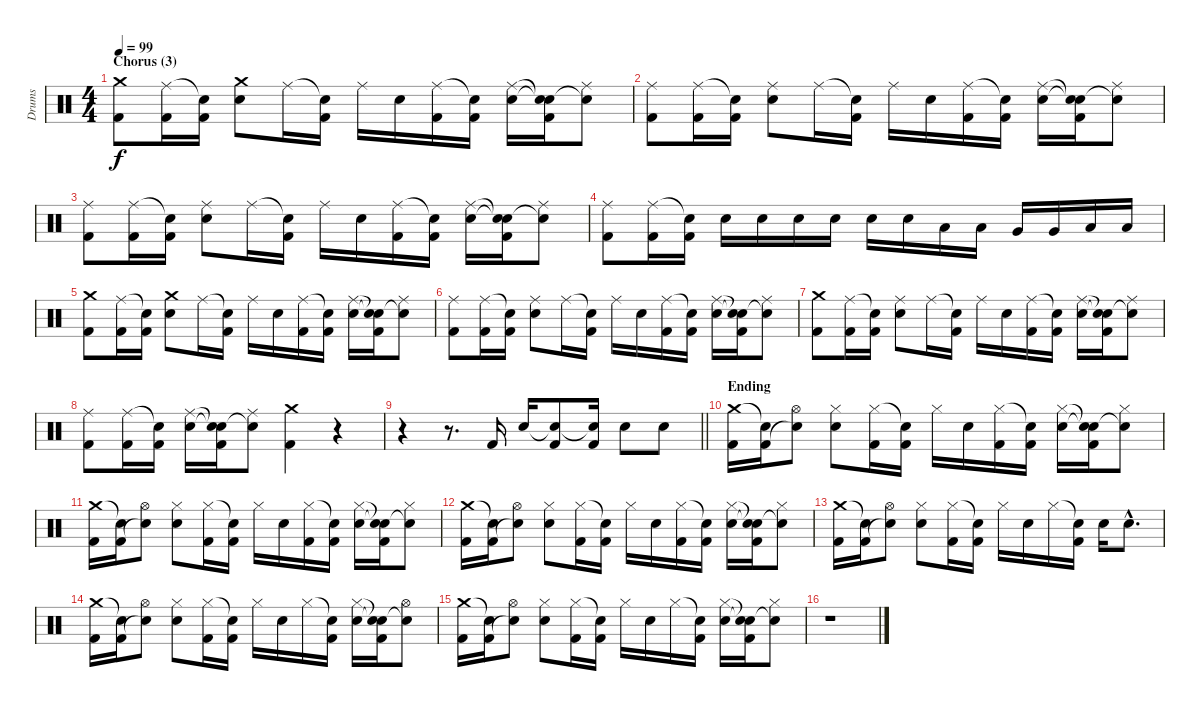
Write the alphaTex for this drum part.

\track ("Drums" "Drums") {instrument percussion}
\staff {score}
\articulation defaults
\ts (4 4)
\section ("" "Chorus (3)")
\tempo 99
\clef neutral
\ks c
("Crash medium (hit)" "Kick (hit) 2").8{dy f} ("Ride (middle)" "Kick (hit) 2").16 ("Snare (hit)"{t} "Kick (hit) 2").16 ("Crash medium (hit)" "Electric Snare (hit)").8 "Ride (middle)".16 ("Snare (hit)"{t} "Kick (hit) 2").16 "Ride (middle)".16 "Electric Snare (hit)".16 ("Ride (middle)" "Kick (hit) 2").16 ("Snare (hit)"{t} "Kick (hit) 2").16 ("Ride (middle)" "Electric Snare (hit)").16 ("Snare (hit)"{t} "Snare (hit)"{t} "Kick (hit) 2").16 ("Ride (middle)" "Snare (hit)"{t}).8 |
("Ride (middle)" "Kick (hit) 2").8 ("Ride (middle)" "Kick (hit) 2").16 ("Snare (hit)"{t} "Kick (hit) 2").16 ("Ride (middle)" "Electric Snare (hit)").8 "Ride (middle)".16 ("Snare (hit)"{t} "Kick (hit) 2").16 "Ride (middle)".16 "Electric Snare (hit)".16 ("Ride (middle)" "Kick (hit) 2").16 ("Snare (hit)"{t} "Kick (hit) 2").16 ("Ride (middle)" "Electric Snare (hit)").16 ("Snare (hit)"{t} "Snare (hit)"{t} "Kick (hit) 2").16 ("Ride (middle)" "Snare (hit)"{t}).8 |
("Ride (middle)" "Kick (hit) 2").8 ("Ride (middle)" "Kick (hit) 2").16 ("Snare (hit)"{t} "Kick (hit) 2").16 ("Ride (middle)" "Electric Snare (hit)").8 "Ride (middle)".16 ("Snare (hit)"{t} "Kick (hit) 2").16 "Ride (middle)".16 "Electric Snare (hit)".16 ("Ride (middle)" "Kick (hit) 2").16 ("Snare (hit)"{t} "Kick (hit) 2").16 ("Ride (middle)" "Electric Snare (hit)").16 ("Snare (hit)"{t} "Snare (hit)"{t} "Kick (hit) 2").16 ("Ride (middle)" "Snare (hit)"{t}).8 |
("Ride (middle)" "Kick (hit) 2").8 ("Ride (middle)" "Kick (hit) 2").16 ("Snare (hit)"{t} "Kick (hit) 2").16 "Electric Snare (hit)".16 "Electric Snare (hit)".16 "Electric Snare (hit)".16 "Electric Snare (hit)".16 "Electric Snare (hit)".16 "Electric Snare (hit)".16 "Low Tom (hit)".16 "Low Tom (hit)".16 "Very Low Tom (hit)".16 "Very Low Tom (hit)".16 "Low Floor Tom (hit)".16 "Low Floor Tom (hit)".16 |
("Crash medium (hit)" "Kick (hit) 2").8 ("Ride (middle)" "Kick (hit) 2").16 ("Snare (hit)"{t} "Kick (hit) 2").16 ("Crash medium (hit)" "Electric Snare (hit)").8 "Ride (middle)".16 ("Snare (hit)"{t} "Kick (hit) 2").16 "Ride (middle)".16 "Electric Snare (hit)".16 ("Ride (middle)" "Kick (hit) 2").16 ("Snare (hit)"{t} "Kick (hit) 2").16 ("Ride (middle)" "Electric Snare (hit)").16 ("Snare (hit)"{t} "Snare (hit)"{t} "Kick (hit) 2").16 ("Ride (middle)" "Snare (hit)"{t}).8 |
("Ride (middle)" "Kick (hit) 2").8 ("Ride (middle)" "Kick (hit) 2").16 ("Snare (hit)"{t} "Kick (hit) 2").16 ("Ride (middle)" "Electric Snare (hit)").8 "Ride (middle)".16 ("Snare (hit)"{t} "Kick (hit) 2").16 "Ride (middle)".16 "Electric Snare (hit)".16 ("Ride (middle)" "Kick (hit) 2").16 ("Snare (hit)"{t} "Kick (hit) 2").16 ("Ride (middle)" "Electric Snare (hit)").16 ("Snare (hit)"{t} "Snare (hit)"{t} "Kick (hit) 2").16 ("Ride (middle)" "Snare (hit)"{t}).8 |
("Crash medium (hit)" "Kick (hit) 2").8 ("Ride (middle)" "Kick (hit) 2").16 ("Snare (hit)"{t} "Kick (hit) 2").16 ("Ride (middle)" "Electric Snare (hit)").8 "Ride (middle)".16 ("Snare (hit)"{t} "Kick (hit) 2").16 "Ride (middle)".16 "Electric Snare (hit)".16 ("Ride (middle)" "Kick (hit) 2").16 ("Snare (hit)"{t} "Kick (hit) 2").16 ("Ride (middle)" "Electric Snare (hit)").16 ("Snare (hit)"{t} "Snare (hit)"{t} "Kick (hit) 2").16 ("Ride (middle)" "Snare (hit)"{t}).8 |
("Ride (middle)" "Kick (hit) 2").8 ("Ride (middle)" "Kick (hit) 2").16 ("Snare (hit)"{t} "Kick (hit) 2").16 ("Ride (middle)" "Electric Snare (hit)").16 ("Snare (hit)"{t} "Snare (hit)"{t} "Kick (hit) 2").16 ("Ride (middle)" "Snare (hit)"{t}).8 ("Crash medium (hit)" "Kick (hit) 2").4 r.4 |
\barLineRight lightlight
r.4 r.8{d} "Kick (hit) 2".16 "Electric Snare (hit)".16 ("Snare (hit)"{t} "Kick (hit) 2").8 ("Snare (hit)"{t} "Kick (hit) 2").16 "Electric Snare (hit)".8 "Electric Snare (hit)".8 |
\section ("" "Ending")
("Crash medium (hit)" "Kick (hit) 2").16 ("Snare (hit)"{t} "Kick (hit) 2").16 ("Hi-Hat (open)" "Snare (hit)"{t}).8 ("Hi-Hat (closed)" "Electric Snare (hit)").8 ("Hi-Hat (closed)" "Kick (hit) 2").16 ("Snare (hit)"{t} "Kick (hit) 2").16 "Hi-Hat (closed)".16 "Electric Snare (hit)".16 ("Hi-Hat (closed)" "Kick (hit) 2").16 ("Snare (hit)"{t} "Kick (hit) 2").16 ("Hi-Hat (closed)" "Electric Snare (hit)").16 ("Snare (hit)"{t} "Snare (hit)"{t} "Kick (hit) 2").16 ("Hi-Hat (closed)" "Snare (hit)"{t}).8 |
("Crash medium (hit)" "Kick (hit) 2").16 ("Snare (hit)"{t} "Kick (hit) 2").16 ("Hi-Hat (open)" "Snare (hit)"{t}).8 ("Hi-Hat (closed)" "Electric Snare (hit)").8 ("Hi-Hat (closed)" "Kick (hit) 2").16 ("Snare (hit)"{t} "Kick (hit) 2").16 "Hi-Hat (closed)".16 "Electric Snare (hit)".16 ("Hi-Hat (closed)" "Kick (hit) 2").16 ("Snare (hit)"{t} "Kick (hit) 2").16 ("Hi-Hat (closed)" "Electric Snare (hit)").16 ("Snare (hit)"{t} "Snare (hit)"{t} "Kick (hit) 2").16 ("Hi-Hat (closed)" "Snare (hit)"{t}).8 |
("Crash medium (hit)" "Kick (hit) 2").16 ("Snare (hit)"{t} "Kick (hit) 2").16 ("Hi-Hat (open)" "Snare (hit)"{t}).8 ("Hi-Hat (closed)" "Electric Snare (hit)").8 ("Hi-Hat (closed)" "Kick (hit) 2").16 ("Snare (hit)"{t} "Kick (hit) 2").16 "Hi-Hat (closed)".16 "Electric Snare (hit)".16 ("Hi-Hat (closed)" "Kick (hit) 2").16 ("Snare (hit)"{t} "Kick (hit) 2").16 ("Hi-Hat (closed)" "Electric Snare (hit)").16 ("Snare (hit)"{t} "Snare (hit)"{t} "Kick (hit) 2").16 ("Hi-Hat (closed)" "Snare (hit)"{t}).8 |
("Crash medium (hit)" "Kick (hit) 2").16 ("Snare (hit)"{t} "Kick (hit) 2").16 ("Hi-Hat (open)" "Snare (hit)"{t}).8 ("Hi-Hat (closed)" "Electric Snare (hit)").8 ("Hi-Hat (closed)" "Kick (hit) 2").16 ("Snare (hit)"{t} "Kick (hit) 2").16 "Hi-Hat (closed)".16 "Electric Snare (hit)".16 "Hi-Hat (closed)".16 ("Snare (hit)"{t} "Kick (hit) 2").16 "Electric Snare (hit)".16 "Electric Snare (hit)"{hac}.8{d} |
("Crash medium (hit)" "Kick (hit) 2").16 ("Snare (hit)"{t} "Kick (hit) 2").16 ("Hi-Hat (open)" "Snare (hit)"{t}).8 ("Hi-Hat (closed)" "Electric Snare (hit)").8 ("Hi-Hat (closed)" "Kick (hit) 2").16 ("Snare (hit)"{t} "Kick (hit) 2").16 "Hi-Hat (closed)".16 "Electric Snare (hit)".16 "Hi-Hat (closed)".16 ("Snare (hit)"{t} "Kick (hit) 2").16 ("Hi-Hat (closed)" "Electric Snare (hit)").16 ("Snare (hit)"{t} "Snare (hit)"{t} "Kick (hit) 2").16 ("Hi-Hat (open)" "Snare (hit)"{t}).8 |
("Crash medium (hit)" "Kick (hit) 2").16 ("Snare (hit)"{t} "Kick (hit) 2").16 ("Hi-Hat (open)" "Snare (hit)"{t}).8 ("Hi-Hat (closed)" "Electric Snare (hit)").8 ("Hi-Hat (closed)" "Kick (hit) 2").16 ("Snare (hit)"{t} "Kick (hit) 2").16 "Hi-Hat (closed)".16 "Electric Snare (hit)".16 "Hi-Hat (closed)".16 ("Snare (hit)"{t} "Kick (hit) 2").16 ("Hi-Hat (closed)" "Electric Snare (hit)").16 ("Snare (hit)"{t} "Snare (hit)"{t} "Kick (hit) 2").16 ("Hi-Hat (closed)" "Snare (hit)"{t}).8 |
r.1
